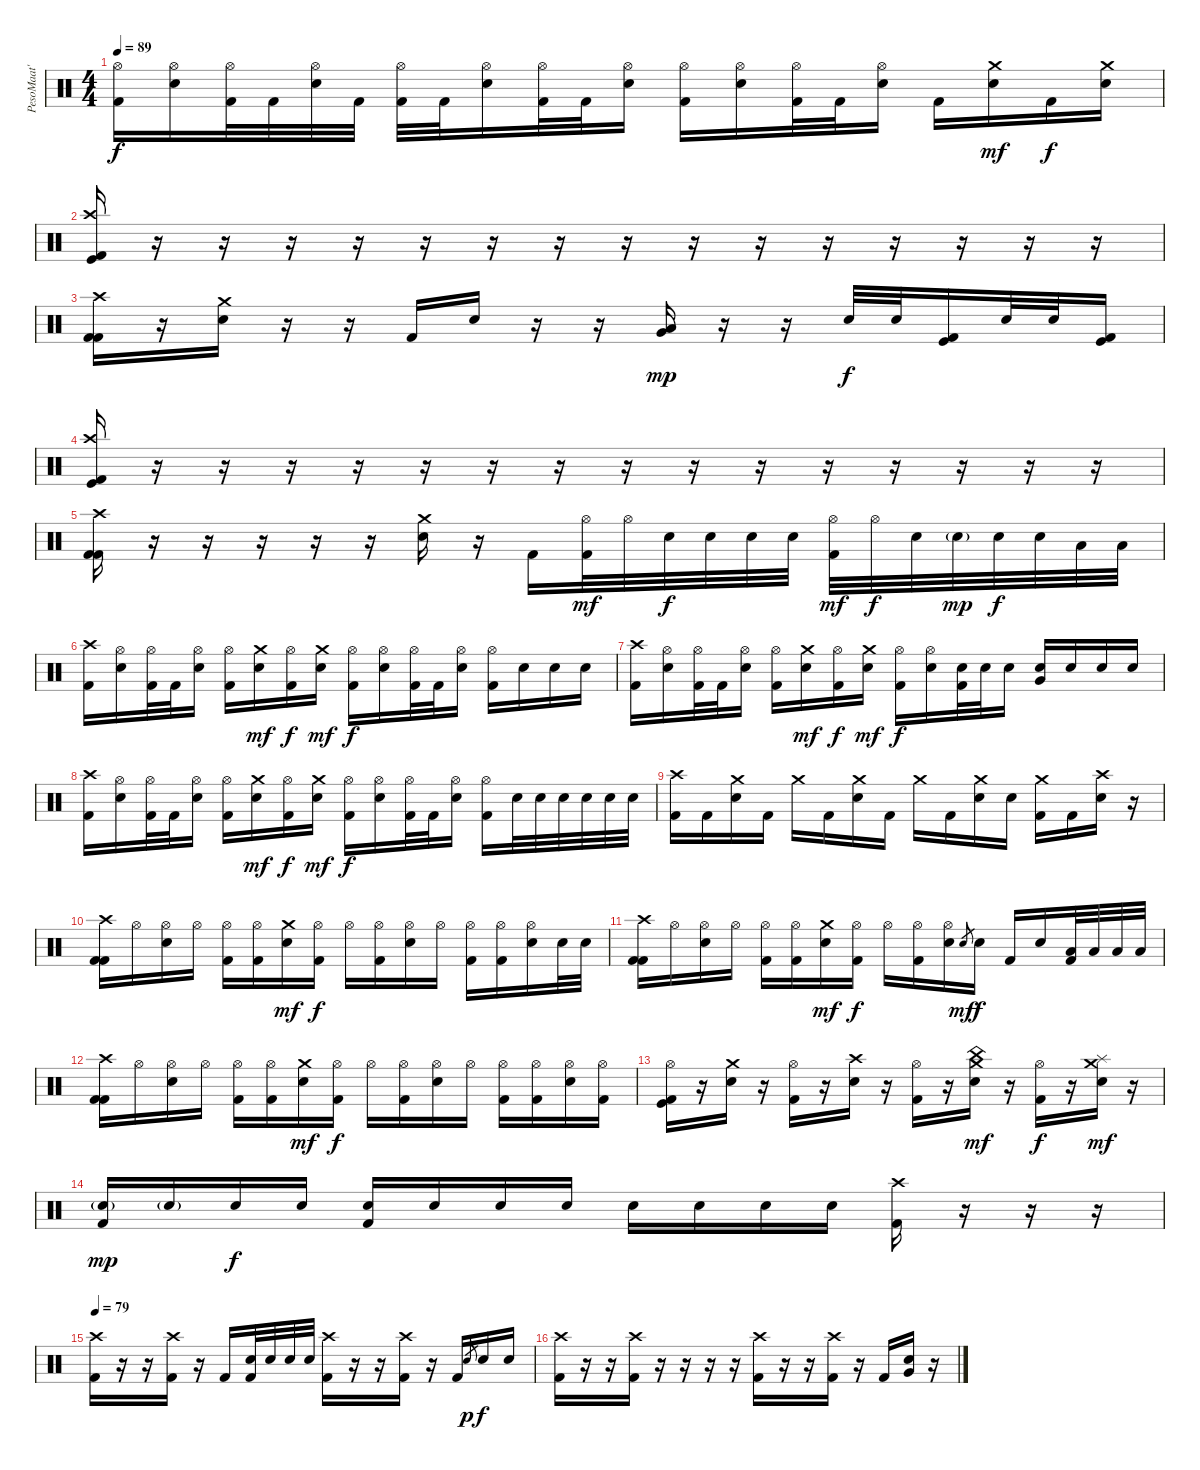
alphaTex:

\track ("PesoMaat' us" "PesoMaat' ") {instrument percussion}
\staff {score}
\articulation defaults
\ts (4 4)
\tempo 89
\clef neutral
\ks c
("Hi-Hat (open)" "Kick (hit) 2").16{dy f} ("Hi-Hat (open)" "Electric Snare (hit)").16 ("Hi-Hat (open)" "Kick (hit) 2").32 "Kick (hit) 2".32 ("Hi-Hat (open)" "Electric Snare (hit)").32 "Kick (hit) 2".32 ("Hi-Hat (open)" "Kick (hit) 2").32 "Kick (hit) 2".32 ("Hi-Hat (open)" "Electric Snare (hit)").16 ("Hi-Hat (open)" "Kick (hit) 2").32 "Kick (hit) 2".32 ("Hi-Hat (open)" "Electric Snare (hit)").16 ("Hi-Hat (open)" "Kick (hit) 2").16 ("Hi-Hat (open)" "Electric Snare (hit)").16 ("Hi-Hat (open)" "Kick (hit) 2").32 "Kick (hit) 2".32 ("Hi-Hat (open)" "Electric Snare (hit)").16 "Kick (hit) 2".16 ("Crash medium (hit)" "Electric Snare (hit)").16{dy mf} "Kick (hit) 2".16{dy f} ("Crash medium (hit)" "Electric Snare (hit)").16 |
("Crash high (hit)" "Kick (hit)" "Kick (hit) 2").16 r.16 r.16 r.16 r.16 r.16 r.16 r.16 r.16 r.16 r.16 r.16 r.16 r.16 r.16 r.16 |
("Crash high (hit)" "Kick (hit) 2" "Kick (hit) 2").16 r.16 ("Crash medium (hit)" "Electric Snare (hit)").16 r.16 r.16 "Kick (hit) 2".16 "Electric Snare (hit)".16 r.16 r.16 ("Low Tom (hit)" "Very Low Tom (hit)").16{dy mp} r.16 r.16 "Electric Snare (hit)".32{dy f} "Electric Snare (hit)".32 ("Kick (hit)" "Kick (hit) 2").16 "Electric Snare (hit)".32 "Electric Snare (hit)".32 ("Kick (hit)" "Kick (hit) 2").16 |
("Crash high (hit)" "Kick (hit)" "Kick (hit) 2").16 r.16 r.16 r.16 r.16 r.16 r.16 r.16 r.16 r.16 r.16 r.16 r.16 r.16 r.16 r.16 |
("Crash high (hit)" "Kick (hit) 2" "Kick (hit) 2").16 r.16 r.16 r.16 r.16 r.16 ("Crash medium (hit)" "Electric Snare (hit)").16 r.16 "Kick (hit) 2".16 ("Hi-Hat (open)" "Kick (hit) 2").32{dy mf} "Hi-Hat (open)".32 "Electric Snare (hit)".32{dy f} "Electric Snare (hit)".32 "Electric Snare (hit)".32 "Electric Snare (hit)".32 ("Hi-Hat (open)" "Kick (hit) 2").32{dy mf} "Hi-Hat (open)".32{dy f} "Electric Snare (hit)".32 "Electric Snare (hit)"{g}.32{dy mp} "Electric Snare (hit)".32{dy f} "Electric Snare (hit)".32 "Low Tom (hit)".32 "Low Tom (hit)".32 |
("Crash high (hit)" "Kick (hit) 2").16 ("Hi-Hat (open)" "Electric Snare (hit)").16 ("Hi-Hat (open)" "Kick (hit) 2").32 "Kick (hit) 2".32 ("Hi-Hat (open)" "Electric Snare (hit)").16 ("Hi-Hat (open)" "Kick (hit) 2").16 ("Crash medium (hit)" "Electric Snare (hit)").16{dy mf} ("Hi-Hat (open)" "Kick (hit) 2").16{dy f} ("Crash medium (hit)" "Electric Snare (hit)").16{dy mf} ("Hi-Hat (open)" "Kick (hit) 2").16{dy f} ("Hi-Hat (open)" "Electric Snare (hit)").16 ("Hi-Hat (open)" "Kick (hit) 2").32 "Kick (hit) 2".32 ("Hi-Hat (open)" "Electric Snare (hit)").16 ("Hi-Hat (open)" "Kick (hit) 2").16 "Electric Snare (hit)".16 "Electric Snare (hit)".16 "Electric Snare (hit)".16 |
("Crash high (hit)" "Kick (hit) 2").16 ("Hi-Hat (open)" "Electric Snare (hit)").16 ("Hi-Hat (open)" "Kick (hit) 2").32 "Kick (hit) 2".32 ("Hi-Hat (open)" "Electric Snare (hit)").16 ("Hi-Hat (open)" "Kick (hit) 2").16 ("Crash medium (hit)" "Electric Snare (hit)").16{dy mf} ("Hi-Hat (open)" "Kick (hit) 2").16{dy f} ("Crash medium (hit)" "Electric Snare (hit)").16{dy mf} ("Hi-Hat (open)" "Kick (hit) 2").16{dy f} ("Hi-Hat (open)" "Electric Snare (hit)").16 ("Electric Snare (hit)" "Kick (hit) 2").32 "Electric Snare (hit)".32 "Electric Snare (hit)".16 ("Very Low Tom (hit)" "Electric Snare (hit)").16 "Electric Snare (hit)".16 "Electric Snare (hit)".16 "Electric Snare (hit)".16 |
("Crash high (hit)" "Kick (hit) 2").16 ("Hi-Hat (open)" "Electric Snare (hit)").16 ("Hi-Hat (open)" "Kick (hit) 2").32 "Kick (hit) 2".32 ("Hi-Hat (open)" "Electric Snare (hit)").16 ("Hi-Hat (open)" "Kick (hit) 2").16 ("Crash medium (hit)" "Electric Snare (hit)").16{dy mf} ("Hi-Hat (open)" "Kick (hit) 2").16{dy f} ("Crash medium (hit)" "Electric Snare (hit)").16{dy mf} ("Hi-Hat (open)" "Kick (hit) 2").16{dy f} ("Hi-Hat (open)" "Electric Snare (hit)").16 ("Hi-Hat (open)" "Kick (hit) 2").32 "Kick (hit) 2".32 ("Hi-Hat (open)" "Electric Snare (hit)").16 ("Hi-Hat (open)" "Kick (hit) 2").16 "Electric Snare (hit)".32 "Electric Snare (hit)".32 "Electric Snare (hit)".32 "Electric Snare (hit)".32 "Electric Snare (hit)".32 "Electric Snare (hit)".32 |
("Crash high (hit)" "Kick (hit) 2").16 "Kick (hit) 2".16 ("Crash medium (hit)" "Electric Snare (hit)").16 "Kick (hit) 2".16 "Crash medium (hit)".16 "Kick (hit) 2".16 ("Crash medium (hit)" "Electric Snare (hit)").16 "Kick (hit) 2".16 "Crash medium (hit)".16 "Kick (hit) 2".16 ("Crash medium (hit)" "Electric Snare (hit)").16 "Electric Snare (hit)".16 ("Crash medium (hit)" "Kick (hit) 2").16 "Kick (hit) 2".16 ("Crash high (hit)" "Electric Snare (hit)").16 r.16 |
("Crash high (hit)" "Kick (hit) 2" "Kick (hit) 2").16 "Hi-Hat (open)".16 ("Hi-Hat (open)" "Electric Snare (hit)").16 "Hi-Hat (open)".16 ("Hi-Hat (open)" "Kick (hit) 2").16 ("Hi-Hat (open)" "Kick (hit) 2").16 ("Crash medium (hit)" "Electric Snare (hit)").16{dy mf} ("Hi-Hat (open)" "Kick (hit) 2").16{dy f} "Hi-Hat (open)".16 ("Hi-Hat (open)" "Kick (hit) 2").16 ("Hi-Hat (open)" "Electric Snare (hit)").16 "Hi-Hat (open)".16 ("Hi-Hat (open)" "Kick (hit) 2").16 ("Hi-Hat (open)" "Kick (hit) 2").16 ("Hi-Hat (open)" "Electric Snare (hit)").16 "Electric Snare (hit)".32 "Electric Snare (hit)".32 |
("Crash high (hit)" "Kick (hit) 2" "Kick (hit) 2").16 "Hi-Hat (open)".16 ("Hi-Hat (open)" "Electric Snare (hit)").16 "Hi-Hat (open)".16 ("Hi-Hat (open)" "Kick (hit) 2").16 ("Hi-Hat (open)" "Kick (hit) 2").16 ("Crash medium (hit)" "Electric Snare (hit)").16{dy mf} ("Hi-Hat (open)" "Kick (hit) 2").16{dy f} "Hi-Hat (open)".16 ("Hi-Hat (open)" "Kick (hit) 2").16 ("Hi-Hat (open)" "Electric Snare (hit)").16 "Electric Snare (hit)".8{gr dy mf} "Electric Snare (hit)".16{dy f} "Kick (hit) 2".16 "Electric Snare (hit)".16 ("Low Tom (hit)" "Kick (hit) 2").32 "Low Tom (hit)".32 "Low Tom (hit)".32 "Low Tom (hit)".32 |
("Crash high (hit)" "Kick (hit) 2" "Kick (hit) 2").16 "Hi-Hat (open)".16 ("Hi-Hat (open)" "Electric Snare (hit)").16 "Hi-Hat (open)".16 ("Hi-Hat (open)" "Kick (hit) 2").16 ("Hi-Hat (open)" "Kick (hit) 2").16 ("Crash medium (hit)" "Electric Snare (hit)").16{dy mf} ("Hi-Hat (open)" "Kick (hit) 2").16{dy f} "Hi-Hat (open)".16 ("Hi-Hat (open)" "Kick (hit) 2").16 ("Hi-Hat (open)" "Electric Snare (hit)").16 "Hi-Hat (open)".16 ("Hi-Hat (open)" "Kick (hit) 2").16 ("Hi-Hat (open)" "Kick (hit) 2").16 ("Hi-Hat (open)" "Electric Snare (hit)").16 ("Hi-Hat (open)" "Kick (hit) 2").16 |
("Hi-Hat (open)" "Kick (hit)" "Kick (hit) 2").16 r.16 ("Crash medium (hit)" "Electric Snare (hit)").16 r.16 ("Hi-Hat (open)" "Kick (hit) 2").16 r.16 ("Crash high (hit)" "Electric Snare (hit)").16 r.16 ("Hi-Hat (open)" "Kick (hit) 2").16 r.16 ("China (hit)" "Crash medium (hit)" "Electric Snare (hit)").16{dy mf} r.16 ("Hi-Hat (open)" "Kick (hit) 2").16{dy f} r.16 ("Splash (hit)" "Crash medium (hit)" "Electric Snare (hit)").16{dy mf} r.16 |
("Electric Snare (hit)"{g} "Kick (hit) 2").16{dy mp} "Electric Snare (hit)"{g}.16 "Electric Snare (hit)".16{dy f} "Electric Snare (hit)".16 ("Electric Snare (hit)" "Kick (hit) 2").16 "Electric Snare (hit)".16 "Electric Snare (hit)".16 "Electric Snare (hit)".16 "Electric Snare (hit)".16 "Electric Snare (hit)".16 "Electric Snare (hit)".16 "Electric Snare (hit)".16 ("Crash high (hit)" "Kick (hit) 2").16 r.16 r.16 r.16 |
\tempo 79
("Crash high (hit)" "Kick (hit) 2").16 r.16 r.16 ("Crash high (hit)" "Kick (hit) 2").16 r.16 "Kick (hit) 2".16 ("Electric Snare (hit)" "Kick (hit) 2").32 "Electric Snare (hit)".32 "Electric Snare (hit)".32 "Electric Snare (hit)".32 ("Crash high (hit)" "Kick (hit) 2").16 r.16 r.16 ("Crash high (hit)" "Kick (hit) 2").16 r.16 "Kick (hit) 2".16 "Electric Snare (hit)".8{gr dy p} "Electric Snare (hit)".16{dy f} "Electric Snare (hit)".16 |
("Crash high (hit)" "Kick (hit) 2").16 r.16 r.16 ("Crash high (hit)" "Kick (hit) 2").16 r.16 r.16 r.16 r.16 ("Crash high (hit)" "Kick (hit) 2").16 r.16 r.16 ("Crash high (hit)" "Kick (hit) 2").16 r.16 "Kick (hit) 2".16 ("Very Low Tom (hit)" "Electric Snare (hit)").16 r.16
